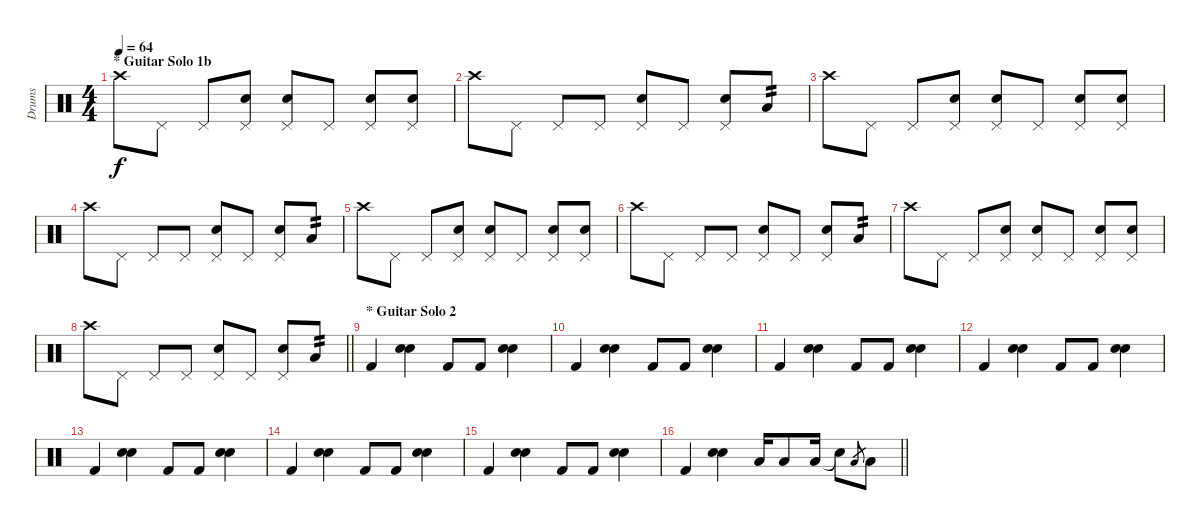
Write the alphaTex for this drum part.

\track ("Drums" "Drums") {instrument percussion}
\staff {score}
\articulation defaults
\ts (4 4)
\section ("" "* Guitar Solo 1b")
\tempo 64
\clef neutral
\ks c "Crash high (hit)".8{dy f} "Pedal Hi-Hat (hit)".8 "Pedal Hi-Hat (hit)".8
("Pedal Hi-Hat (hit)" "Electric Snare (hit)").8 ("Pedal Hi-Hat (hit)" "Electric Snare (hit)").8 "Pedal Hi-Hat (hit)".8 ("Pedal Hi-Hat (hit)" "Electric Snare (hit)").8 ("Pedal Hi-Hat (hit)" "Electric Snare (hit)").8 |
"Crash high (hit)".8 "Pedal Hi-Hat (hit)".8 "Pedal Hi-Hat (hit)".8 "Pedal Hi-Hat (hit)".8 ("Pedal Hi-Hat (hit)" "Electric Snare (hit)").8 "Pedal Hi-Hat (hit)".8 ("Pedal Hi-Hat (hit)" "Electric Snare (hit)").8 "Low Tom (hit)".8{tp 2} |
"Crash high (hit)".8 "Pedal Hi-Hat (hit)".8 "Pedal Hi-Hat (hit)".8 ("Pedal Hi-Hat (hit)" "Electric Snare (hit)").8 ("Pedal Hi-Hat (hit)" "Electric Snare (hit)").8 "Pedal Hi-Hat (hit)".8 ("Pedal Hi-Hat (hit)" "Electric Snare (hit)").8 ("Pedal Hi-Hat (hit)" "Electric Snare (hit)").8 |
"Crash high (hit)".8 "Pedal Hi-Hat (hit)".8 "Pedal Hi-Hat (hit)".8 "Pedal Hi-Hat (hit)".8 ("Pedal Hi-Hat (hit)" "Electric Snare (hit)").8 "Pedal Hi-Hat (hit)".8 ("Pedal Hi-Hat (hit)" "Electric Snare (hit)").8 "Low Tom (hit)".8{tp 2} |
"Crash high (hit)".8 "Pedal Hi-Hat (hit)".8 "Pedal Hi-Hat (hit)".8 ("Pedal Hi-Hat (hit)" "Electric Snare (hit)").8 ("Pedal Hi-Hat (hit)" "Electric Snare (hit)").8 "Pedal Hi-Hat (hit)".8 ("Pedal Hi-Hat (hit)" "Electric Snare (hit)").8 ("Pedal Hi-Hat (hit)" "Electric Snare (hit)").8 |
"Crash high (hit)".8 "Pedal Hi-Hat (hit)".8 "Pedal Hi-Hat (hit)".8 "Pedal Hi-Hat (hit)".8 ("Pedal Hi-Hat (hit)" "Electric Snare (hit)").8 "Pedal Hi-Hat (hit)".8 ("Pedal Hi-Hat (hit)" "Electric Snare (hit)").8 "Low Tom (hit)".8{tp 2} |
"Crash high (hit)".8 "Pedal Hi-Hat (hit)".8 "Pedal Hi-Hat (hit)".8 ("Pedal Hi-Hat (hit)" "Electric Snare (hit)").8 ("Pedal Hi-Hat (hit)" "Electric Snare (hit)").8 "Pedal Hi-Hat (hit)".8 ("Pedal Hi-Hat (hit)" "Electric Snare (hit)").8 ("Pedal Hi-Hat (hit)" "Electric Snare (hit)").8 |
\barLineRight lightlight "Crash high (hit)".8 "Pedal Hi-Hat (hit)".8 "Pedal Hi-Hat (hit)".8 "Pedal Hi-Hat (hit)".8
("Pedal Hi-Hat (hit)" "Electric Snare (hit)").8 "Pedal Hi-Hat (hit)".8 ("Pedal Hi-Hat (hit)" "Electric Snare (hit)").8 "Low Tom (hit)".8{tp 2} |
\section ("" "* Guitar Solo 2")
"Kick (hit) 2".4 ("Snare (hit) 2" "Electric Snare (hit)").4 "Kick (hit) 2".8 "Kick (hit) 2".8 ("Snare (hit) 2" "Electric Snare (hit)").4 |
"Kick (hit) 2".4 ("Snare (hit) 2" "Electric Snare (hit)").4 "Kick (hit) 2".8 "Kick (hit) 2".8 ("Snare (hit) 2" "Electric Snare (hit)").4 |
"Kick (hit) 2".4 ("Snare (hit) 2" "Electric Snare (hit)").4 "Kick (hit) 2".8 "Kick (hit) 2".8 ("Snare (hit) 2" "Electric Snare (hit)").4 |
"Kick (hit) 2".4 ("Snare (hit) 2" "Electric Snare (hit)").4 "Kick (hit) 2".8 "Kick (hit) 2".8 ("Snare (hit) 2" "Electric Snare (hit)").4 |
"Kick (hit) 2".4 ("Snare (hit) 2" "Electric Snare (hit)").4 "Kick (hit) 2".8 "Kick (hit) 2".8 ("Snare (hit) 2" "Electric Snare (hit)").4 |
"Kick (hit) 2".4 ("Snare (hit) 2" "Electric Snare (hit)").4 "Kick (hit) 2".8 "Kick (hit) 2".8 ("Snare (hit) 2" "Electric Snare (hit)").4 |
"Kick (hit) 2".4 ("Snare (hit) 2" "Electric Snare (hit)").4 "Kick (hit) 2".8 "Kick (hit) 2".8 ("Snare (hit) 2" "Electric Snare (hit)").4 |
\barLineRight lightlight "Kick (hit) 2".4
("Snare (hit) 2" "Electric Snare (hit)").4 "Low Tom (hit)".16 "Low Floor Tom (hit)".8 "Low Floor Tom (hit)".16 "Snare (hit)"{t}.8 "Low Tom (hit)".8{gr} "Low Floor Tom (hit)".8
